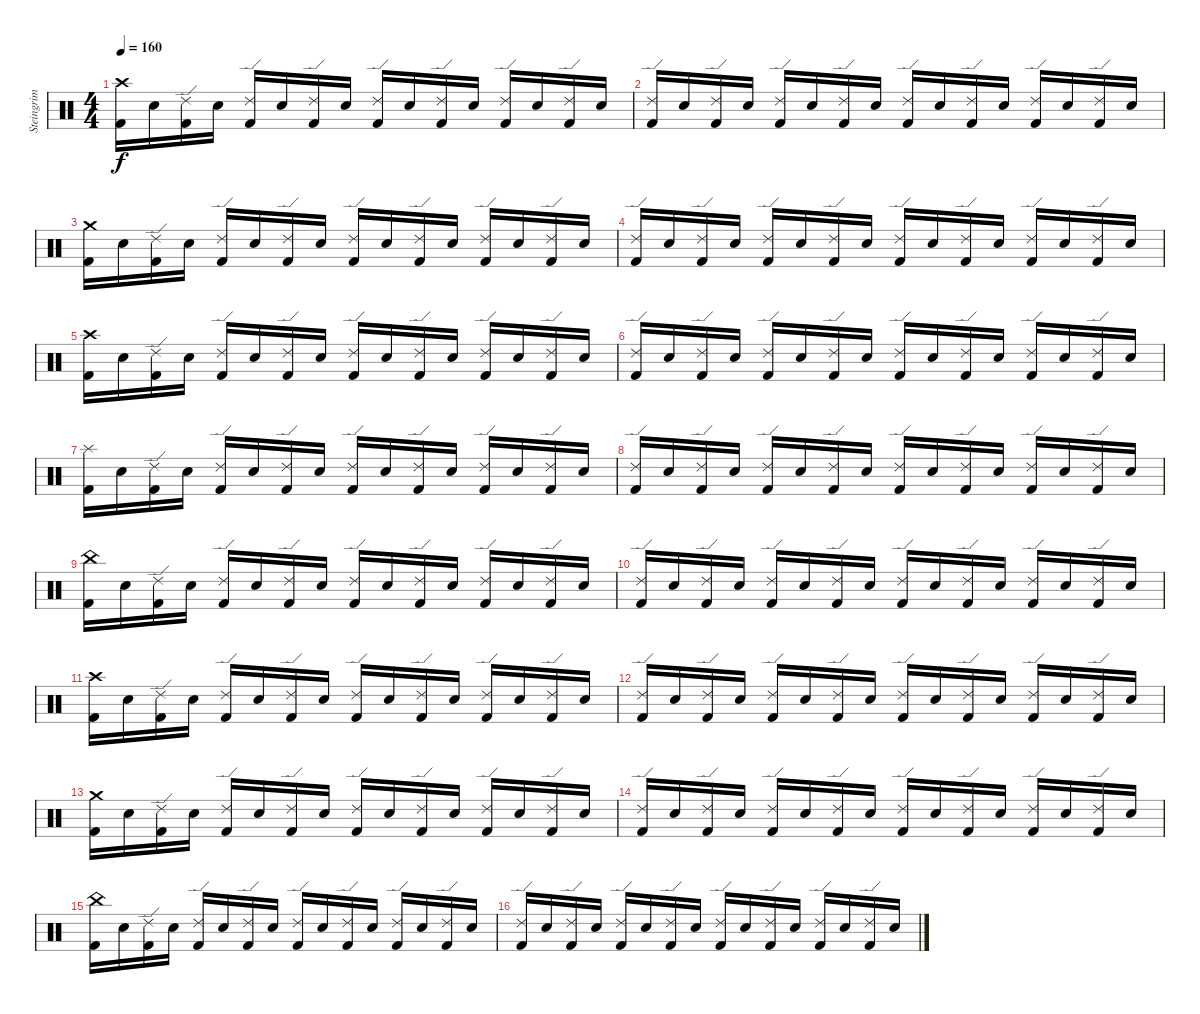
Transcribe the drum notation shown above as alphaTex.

\track ("Steingrim Trommur" "Steingrim ") {instrument percussion}
\staff {score}
\articulation defaults
\ts (4 4)
\tempo 160
\clef neutral
\ks c
("Crash high (hit)" "Kick (hit) 2").16{dy f} "Electric Snare (hit)".16 ("Ride (edge) 2" "Kick (hit) 2").16 "Electric Snare (hit)".16 ("Ride (edge) 2" "Kick (hit) 2").16 "Electric Snare (hit)".16 ("Ride (edge) 2" "Kick (hit) 2").16 "Electric Snare (hit)".16 ("Ride (edge) 2" "Kick (hit) 2").16 "Electric Snare (hit)".16 ("Ride (edge) 2" "Kick (hit) 2").16 "Electric Snare (hit)".16 ("Ride (edge) 2" "Kick (hit) 2").16 "Electric Snare (hit)".16 ("Ride (edge) 2" "Kick (hit) 2").16 "Electric Snare (hit)".16 |
("Ride (edge) 2" "Kick (hit) 2").16 "Electric Snare (hit)".16 ("Ride (edge) 2" "Kick (hit) 2").16 "Electric Snare (hit)".16 ("Ride (edge) 2" "Kick (hit) 2").16 "Electric Snare (hit)".16 ("Ride (edge) 2" "Kick (hit) 2").16 "Electric Snare (hit)".16 ("Ride (edge) 2" "Kick (hit) 2").16 "Electric Snare (hit)".16 ("Ride (edge) 2" "Kick (hit) 2").16 "Electric Snare (hit)".16 ("Ride (edge) 2" "Kick (hit) 2").16 "Electric Snare (hit)".16 ("Ride (edge) 2" "Kick (hit) 2").16 "Electric Snare (hit)".16 |
("Crash medium (hit)" "Kick (hit) 2").16 "Electric Snare (hit)".16 ("Ride (edge) 2" "Kick (hit) 2").16 "Electric Snare (hit)".16 ("Ride (edge) 2" "Kick (hit) 2").16 "Electric Snare (hit)".16 ("Ride (edge) 2" "Kick (hit) 2").16 "Electric Snare (hit)".16 ("Ride (edge) 2" "Kick (hit) 2").16 "Electric Snare (hit)".16 ("Ride (edge) 2" "Kick (hit) 2").16 "Electric Snare (hit)".16 ("Ride (edge) 2" "Kick (hit) 2").16 "Electric Snare (hit)".16 ("Ride (edge) 2" "Kick (hit) 2").16 "Electric Snare (hit)".16 |
("Ride (edge) 2" "Kick (hit) 2").16 "Electric Snare (hit)".16 ("Ride (edge) 2" "Kick (hit) 2").16 "Electric Snare (hit)".16 ("Ride (edge) 2" "Kick (hit) 2").16 "Electric Snare (hit)".16 ("Ride (edge) 2" "Kick (hit) 2").16 "Electric Snare (hit)".16 ("Ride (edge) 2" "Kick (hit) 2").16 "Electric Snare (hit)".16 ("Ride (edge) 2" "Kick (hit) 2").16 "Electric Snare (hit)".16 ("Ride (edge) 2" "Kick (hit) 2").16 "Electric Snare (hit)".16 ("Ride (edge) 2" "Kick (hit) 2").16 "Electric Snare (hit)".16 |
("Crash high (hit)" "Kick (hit) 2").16 "Electric Snare (hit)".16 ("Ride (edge) 2" "Kick (hit) 2").16 "Electric Snare (hit)".16 ("Ride (edge) 2" "Kick (hit) 2").16 "Electric Snare (hit)".16 ("Ride (edge) 2" "Kick (hit) 2").16 "Electric Snare (hit)".16 ("Ride (edge) 2" "Kick (hit) 2").16 "Electric Snare (hit)".16 ("Ride (edge) 2" "Kick (hit) 2").16 "Electric Snare (hit)".16 ("Ride (edge) 2" "Kick (hit) 2").16 "Electric Snare (hit)".16 ("Ride (edge) 2" "Kick (hit) 2").16 "Electric Snare (hit)".16 |
("Ride (edge) 2" "Kick (hit) 2").16 "Electric Snare (hit)".16 ("Ride (edge) 2" "Kick (hit) 2").16 "Electric Snare (hit)".16 ("Ride (edge) 2" "Kick (hit) 2").16 "Electric Snare (hit)".16 ("Ride (edge) 2" "Kick (hit) 2").16 "Electric Snare (hit)".16 ("Ride (edge) 2" "Kick (hit) 2").16 "Electric Snare (hit)".16 ("Ride (edge) 2" "Kick (hit) 2").16 "Electric Snare (hit)".16 ("Ride (edge) 2" "Kick (hit) 2").16 "Electric Snare (hit)".16 ("Ride (edge) 2" "Kick (hit) 2").16 "Electric Snare (hit)".16 |
("Splash (hit)" "Kick (hit) 2").16 "Electric Snare (hit)".16 ("Ride (edge) 2" "Kick (hit) 2").16 "Electric Snare (hit)".16 ("Ride (edge) 2" "Kick (hit) 2").16 "Electric Snare (hit)".16 ("Ride (edge) 2" "Kick (hit) 2").16 "Electric Snare (hit)".16 ("Ride (edge) 2" "Kick (hit) 2").16 "Electric Snare (hit)".16 ("Ride (edge) 2" "Kick (hit) 2").16 "Electric Snare (hit)".16 ("Ride (edge) 2" "Kick (hit) 2").16 "Electric Snare (hit)".16 ("Ride (edge) 2" "Kick (hit) 2").16 "Electric Snare (hit)".16 |
("Ride (edge) 2" "Kick (hit) 2").16 "Electric Snare (hit)".16 ("Ride (edge) 2" "Kick (hit) 2").16 "Electric Snare (hit)".16 ("Ride (edge) 2" "Kick (hit) 2").16 "Electric Snare (hit)".16 ("Ride (edge) 2" "Kick (hit) 2").16 "Electric Snare (hit)".16 ("Ride (edge) 2" "Kick (hit) 2").16 "Electric Snare (hit)".16 ("Ride (edge) 2" "Kick (hit) 2").16 "Electric Snare (hit)".16 ("Ride (edge) 2" "Kick (hit) 2").16 "Electric Snare (hit)".16 ("Ride (edge) 2" "Kick (hit) 2").16 "Electric Snare (hit)".16 |
("China (hit)" "Kick (hit) 2").16 "Electric Snare (hit)".16 ("Ride (edge) 2" "Kick (hit) 2").16 "Electric Snare (hit)".16 ("Ride (edge) 2" "Kick (hit) 2").16 "Electric Snare (hit)".16 ("Ride (edge) 2" "Kick (hit) 2").16 "Electric Snare (hit)".16 ("Ride (edge) 2" "Kick (hit) 2").16 "Electric Snare (hit)".16 ("Ride (edge) 2" "Kick (hit) 2").16 "Electric Snare (hit)".16 ("Ride (edge) 2" "Kick (hit) 2").16 "Electric Snare (hit)".16 ("Ride (edge) 2" "Kick (hit) 2").16 "Electric Snare (hit)".16 |
("Ride (edge) 2" "Kick (hit) 2").16 "Electric Snare (hit)".16 ("Ride (edge) 2" "Kick (hit) 2").16 "Electric Snare (hit)".16 ("Ride (edge) 2" "Kick (hit) 2").16 "Electric Snare (hit)".16 ("Ride (edge) 2" "Kick (hit) 2").16 "Electric Snare (hit)".16 ("Ride (edge) 2" "Kick (hit) 2").16 "Electric Snare (hit)".16 ("Ride (edge) 2" "Kick (hit) 2").16 "Electric Snare (hit)".16 ("Ride (edge) 2" "Kick (hit) 2").16 "Electric Snare (hit)".16 ("Ride (edge) 2" "Kick (hit) 2").16 "Electric Snare (hit)".16 |
("Crash high (hit)" "Kick (hit) 2").16 "Electric Snare (hit)".16 ("Ride (edge) 2" "Kick (hit) 2").16 "Electric Snare (hit)".16 ("Ride (edge) 2" "Kick (hit) 2").16 "Electric Snare (hit)".16 ("Ride (edge) 2" "Kick (hit) 2").16 "Electric Snare (hit)".16 ("Ride (edge) 2" "Kick (hit) 2").16 "Electric Snare (hit)".16 ("Ride (edge) 2" "Kick (hit) 2").16 "Electric Snare (hit)".16 ("Ride (edge) 2" "Kick (hit) 2").16 "Electric Snare (hit)".16 ("Ride (edge) 2" "Kick (hit) 2").16 "Electric Snare (hit)".16 |
("Ride (edge) 2" "Kick (hit) 2").16 "Electric Snare (hit)".16 ("Ride (edge) 2" "Kick (hit) 2").16 "Electric Snare (hit)".16 ("Ride (edge) 2" "Kick (hit) 2").16 "Electric Snare (hit)".16 ("Ride (edge) 2" "Kick (hit) 2").16 "Electric Snare (hit)".16 ("Ride (edge) 2" "Kick (hit) 2").16 "Electric Snare (hit)".16 ("Ride (edge) 2" "Kick (hit) 2").16 "Electric Snare (hit)".16 ("Ride (edge) 2" "Kick (hit) 2").16 "Electric Snare (hit)".16 ("Ride (edge) 2" "Kick (hit) 2").16 "Electric Snare (hit)".16 |
("Crash medium (hit)" "Kick (hit) 2").16 "Electric Snare (hit)".16 ("Ride (edge) 2" "Kick (hit) 2").16 "Electric Snare (hit)".16 ("Ride (edge) 2" "Kick (hit) 2").16 "Electric Snare (hit)".16 ("Ride (edge) 2" "Kick (hit) 2").16 "Electric Snare (hit)".16 ("Ride (edge) 2" "Kick (hit) 2").16 "Electric Snare (hit)".16 ("Ride (edge) 2" "Kick (hit) 2").16 "Electric Snare (hit)".16 ("Ride (edge) 2" "Kick (hit) 2").16 "Electric Snare (hit)".16 ("Ride (edge) 2" "Kick (hit) 2").16 "Electric Snare (hit)".16 |
("Ride (edge) 2" "Kick (hit) 2").16 "Electric Snare (hit)".16 ("Ride (edge) 2" "Kick (hit) 2").16 "Electric Snare (hit)".16 ("Ride (edge) 2" "Kick (hit) 2").16 "Electric Snare (hit)".16 ("Ride (edge) 2" "Kick (hit) 2").16 "Electric Snare (hit)".16 ("Ride (edge) 2" "Kick (hit) 2").16 "Electric Snare (hit)".16 ("Ride (edge) 2" "Kick (hit) 2").16 "Electric Snare (hit)".16 ("Ride (edge) 2" "Kick (hit) 2").16 "Electric Snare (hit)".16 ("Ride (edge) 2" "Kick (hit) 2").16 "Electric Snare (hit)".16 |
("China (hit)" "Kick (hit) 2").16 "Electric Snare (hit)".16 ("Ride (edge) 2" "Kick (hit) 2").16 "Electric Snare (hit)".16 ("Ride (edge) 2" "Kick (hit) 2").16 "Electric Snare (hit)".16 ("Ride (edge) 2" "Kick (hit) 2").16 "Electric Snare (hit)".16 ("Ride (edge) 2" "Kick (hit) 2").16 "Electric Snare (hit)".16 ("Ride (edge) 2" "Kick (hit) 2").16 "Electric Snare (hit)".16 ("Ride (edge) 2" "Kick (hit) 2").16 "Electric Snare (hit)".16 ("Ride (edge) 2" "Kick (hit) 2").16 "Electric Snare (hit)".16 |
("Ride (edge) 2" "Kick (hit) 2").16 "Electric Snare (hit)".16 ("Ride (edge) 2" "Kick (hit) 2").16 "Electric Snare (hit)".16 ("Ride (edge) 2" "Kick (hit) 2").16 "Electric Snare (hit)".16 ("Ride (edge) 2" "Kick (hit) 2").16 "Electric Snare (hit)".16 ("Ride (edge) 2" "Kick (hit) 2").16 "Electric Snare (hit)".16 ("Ride (edge) 2" "Kick (hit) 2").16 "Electric Snare (hit)".16 ("Ride (edge) 2" "Kick (hit) 2").16 "Electric Snare (hit)".16 ("Ride (edge) 2" "Kick (hit) 2").16 "Electric Snare (hit)".16
